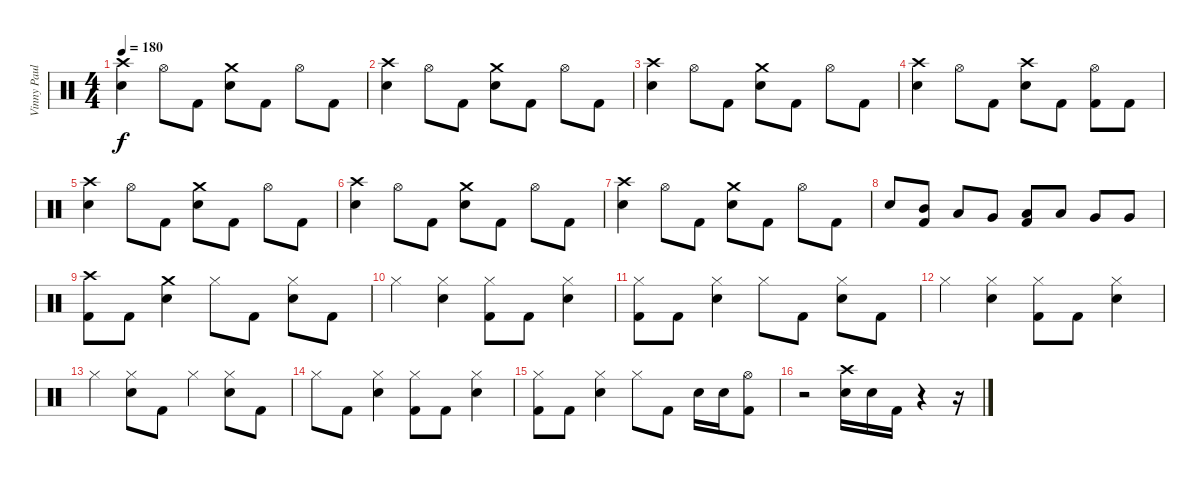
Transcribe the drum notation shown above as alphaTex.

\track ("Vinny Paul" "Vinny Paul") {instrument percussion}
\staff {score}
\articulation defaults
\ts (4 4)
\tempo 180
\clef neutral
\ks c
("Crash high (hit)" "Electric Snare (hit)").4{dy f} "Hi-Hat (open)".8 "Kick (hit) 2".8 ("Crash medium (hit)" "Electric Snare (hit)").8 "Kick (hit) 2".8 "Hi-Hat (open)".8 "Kick (hit) 2".8 |
("Crash high (hit)" "Electric Snare (hit)").4 "Hi-Hat (open)".8 "Kick (hit) 2".8 ("Crash medium (hit)" "Electric Snare (hit)").8 "Kick (hit) 2".8 "Hi-Hat (open)".8 "Kick (hit) 2".8 |
("Crash high (hit)" "Electric Snare (hit)").4 "Hi-Hat (open)".8 "Kick (hit) 2".8 ("Crash medium (hit)" "Electric Snare (hit)").8 "Kick (hit) 2".8 "Hi-Hat (open)".8 "Kick (hit) 2".8 |
("Crash high (hit)" "Electric Snare (hit)").4 "Hi-Hat (open)".8 "Kick (hit) 2".8 ("Crash high (hit)" "Electric Snare (hit)").8 "Kick (hit) 2".8 ("Hi-Hat (open)" "Kick (hit) 2").8 "Kick (hit) 2".8 |
("Crash high (hit)" "Electric Snare (hit)").4 "Hi-Hat (open)".8 "Kick (hit) 2".8 ("Crash medium (hit)" "Electric Snare (hit)").8 "Kick (hit) 2".8 "Hi-Hat (open)".8 "Kick (hit) 2".8 |
("Crash high (hit)" "Electric Snare (hit)").4 "Hi-Hat (open)".8 "Kick (hit) 2".8 ("Crash medium (hit)" "Electric Snare (hit)").8 "Kick (hit) 2".8 "Hi-Hat (open)".8 "Kick (hit) 2".8 |
("Crash high (hit)" "Electric Snare (hit)").4 "Hi-Hat (open)".8 "Kick (hit) 2".8 ("Crash medium (hit)" "Electric Snare (hit)").8 "Kick (hit) 2".8 "Hi-Hat (open)".8 "Kick (hit) 2".8 |
"Electric Snare (hit)".8 ("Mid Tom (hit)" "Kick (hit) 2").8 "Low Tom (hit)".8 "Very Low Tom (hit)".8 ("Low Tom (hit)" "Kick (hit) 2").8 "Low Tom (hit)".8 "Very Low Tom (hit)".8 "Very Low Tom (hit)".8 |
("Crash high (hit)" "Kick (hit) 2").8 "Kick (hit) 2".8 ("Crash medium (hit)" "Electric Snare (hit)").4 "Hi-Hat (closed)".8 "Kick (hit) 2".8 ("Hi-Hat (closed)" "Electric Snare (hit)").8 "Kick (hit) 2".8 |
"Hi-Hat (closed)".4 ("Hi-Hat (closed)" "Electric Snare (hit)").4 ("Hi-Hat (closed)" "Kick (hit) 2").8 "Kick (hit) 2".8 ("Hi-Hat (closed)" "Electric Snare (hit)").4 |
("Hi-Hat (closed)" "Kick (hit) 2").8 "Kick (hit) 2".8 ("Hi-Hat (closed)" "Electric Snare (hit)").4 "Hi-Hat (closed)".8 "Kick (hit) 2".8 ("Hi-Hat (closed)" "Electric Snare (hit)").8 "Kick (hit) 2".8 |
"Hi-Hat (closed)".4 ("Hi-Hat (closed)" "Electric Snare (hit)").4 ("Hi-Hat (closed)" "Kick (hit) 2").8 "Kick (hit) 2".8 ("Hi-Hat (closed)" "Electric Snare (hit)").4 |
"Hi-Hat (closed)".4 ("Hi-Hat (closed)" "Electric Snare (hit)").8 "Kick (hit) 2".8 "Hi-Hat (closed)".4 ("Hi-Hat (closed)" "Electric Snare (hit)").8 "Kick (hit) 2".8 |
"Hi-Hat (closed)".8 "Kick (hit) 2".8 ("Hi-Hat (closed)" "Electric Snare (hit)").4 ("Hi-Hat (closed)" "Kick (hit) 2").8 "Kick (hit) 2".8 ("Hi-Hat (closed)" "Electric Snare (hit)").4 |
("Hi-Hat (closed)" "Kick (hit) 2").8 "Kick (hit) 2".8 ("Hi-Hat (closed)" "Electric Snare (hit)").4 "Hi-Hat (closed)".8 "Kick (hit) 2".8 "Electric Snare (hit)".16 "Electric Snare (hit)".16 ("Hi-Hat (open)" "Kick (hit) 2").8 |
r.2 ("Crash high (hit)" "Electric Snare (hit)").16 "Electric Snare (hit)".16 "Kick (hit) 2".16 r.4 r.16
